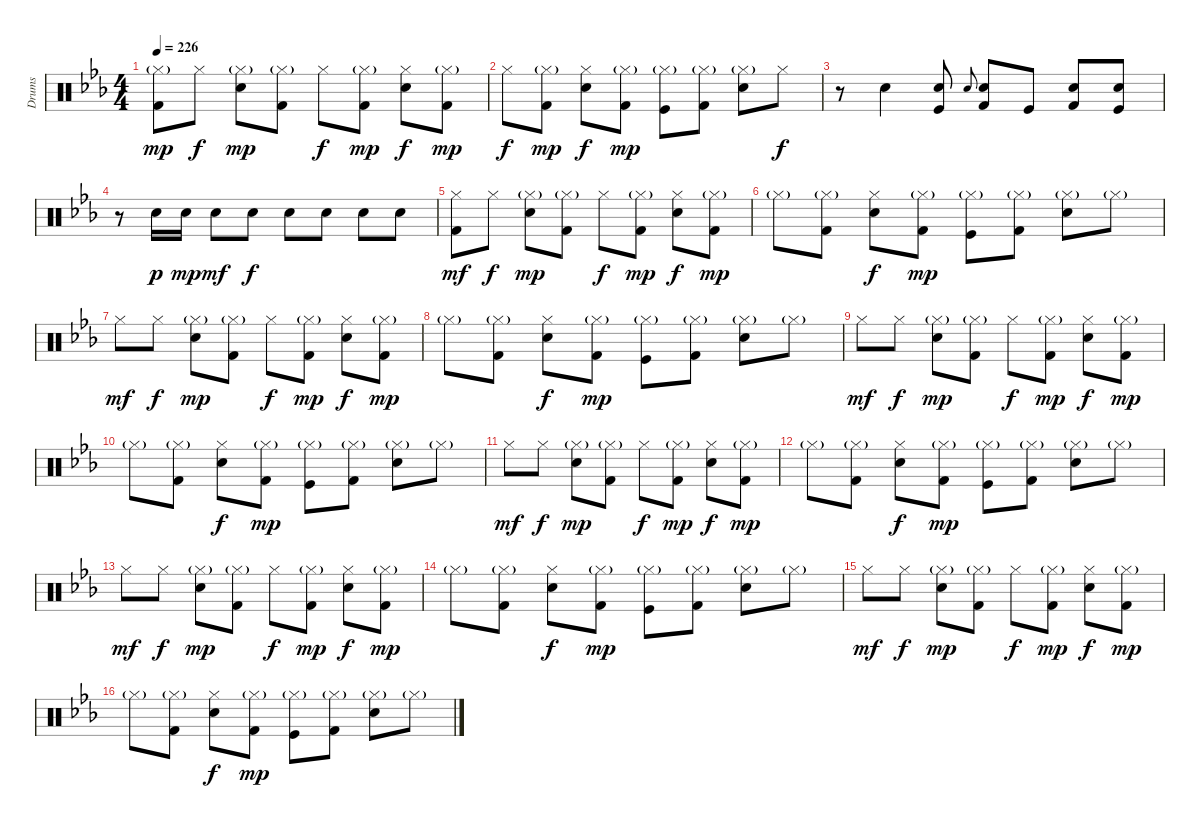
\track ("Drums" "Drums") {instrument percussion}
\staff {score}
\articulation defaults
\ts (4 4)
\tempo 226
\clef neutral
\ks cminor
("Hi-Hat (closed)"{g} "Kick (hit) 2").8{dy mp} "Hi-Hat (closed)".8{dy f} ("Hi-Hat (closed)"{g} "Snare (hit) 2").8{dy mp} ("Hi-Hat (closed)"{g} "Kick (hit) 2").8 "Hi-Hat (closed)".8{dy f} ("Hi-Hat (closed)"{g} "Kick (hit) 2").8{dy mp} ("Hi-Hat (closed)" "Snare (hit) 2").8{dy f} ("Hi-Hat (closed)"{g} "Kick (hit) 2").8{dy mp} |
"Hi-Hat (closed)".8{dy f} ("Hi-Hat (closed)"{g} "Kick (hit) 2").8{dy mp} ("Hi-Hat (closed)" "Snare (hit) 2").8{dy f} ("Hi-Hat (closed)"{g} "Kick (hit) 2").8{dy mp} ("Hi-Hat (closed)"{g} "Kick (hit)").8 ("Hi-Hat (closed)"{g} "Kick (hit) 2").8 ("Hi-Hat (closed)"{g} "Snare (hit) 2").8 "Hi-Hat (closed)".8{dy f} |
r.8 "Snare (hit) 2".4 ("Snare (hit) 2" "Kick (hit)").8 "Snare (hit) 2".8{gr onbeat} ("Snare (hit) 2" "Kick (hit) 2").8 "Kick (hit)".8 ("Snare (hit) 2" "Kick (hit) 2").8 ("Snare (hit) 2" "Kick (hit)").8 |
r.8 "Snare (hit) 2".16{dy p} "Snare (hit) 2".16{dy mp} "Snare (hit) 2".8{dy mf} "Snare (hit) 2".8{dy f} "Snare (hit) 2".8 "Snare (hit) 2".8 "Snare (hit) 2".8 "Snare (hit) 2".8 |
("Hi-Hat (closed)" "Kick (hit) 2").8{dy mf} "Hi-Hat (closed)".8{dy f} ("Hi-Hat (closed)"{g} "Snare (hit) 2").8{dy mp} ("Hi-Hat (closed)"{g} "Kick (hit) 2").8 "Hi-Hat (closed)".8{dy f} ("Hi-Hat (closed)"{g} "Kick (hit) 2").8{dy mp} ("Hi-Hat (closed)" "Snare (hit) 2").8{dy f} ("Hi-Hat (closed)"{g} "Kick (hit) 2").8{dy mp} |
"Hi-Hat (closed)"{g}.8 ("Hi-Hat (closed)"{g} "Kick (hit) 2").8 ("Hi-Hat (closed)" "Snare (hit) 2").8{dy f} ("Hi-Hat (closed)"{g} "Kick (hit) 2").8{dy mp} ("Hi-Hat (closed)"{g} "Kick (hit)").8 ("Hi-Hat (closed)"{g} "Kick (hit) 2").8 ("Hi-Hat (closed)"{g} "Snare (hit) 2").8 "Hi-Hat (closed)"{g}.8 |
"Hi-Hat (closed)".8{dy mf} "Hi-Hat (closed)".8{dy f} ("Hi-Hat (closed)"{g} "Snare (hit) 2").8{dy mp} ("Hi-Hat (closed)"{g} "Kick (hit) 2").8 "Hi-Hat (closed)".8{dy f} ("Hi-Hat (closed)"{g} "Kick (hit) 2").8{dy mp} ("Hi-Hat (closed)" "Snare (hit) 2").8{dy f} ("Hi-Hat (closed)"{g} "Kick (hit) 2").8{dy mp} |
"Hi-Hat (closed)"{g}.8 ("Hi-Hat (closed)"{g} "Kick (hit) 2").8 ("Hi-Hat (closed)" "Snare (hit) 2").8{dy f} ("Hi-Hat (closed)"{g} "Kick (hit) 2").8{dy mp} ("Hi-Hat (closed)"{g} "Kick (hit)").8 ("Hi-Hat (closed)"{g} "Kick (hit) 2").8 ("Hi-Hat (closed)"{g} "Snare (hit) 2").8 "Hi-Hat (closed)"{g}.8 |
"Hi-Hat (closed)".8{dy mf} "Hi-Hat (closed)".8{dy f} ("Hi-Hat (closed)"{g} "Snare (hit) 2").8{dy mp} ("Hi-Hat (closed)"{g} "Kick (hit) 2").8 "Hi-Hat (closed)".8{dy f} ("Hi-Hat (closed)"{g} "Kick (hit) 2").8{dy mp} ("Hi-Hat (closed)" "Snare (hit) 2").8{dy f} ("Hi-Hat (closed)"{g} "Kick (hit) 2").8{dy mp} |
"Hi-Hat (closed)"{g}.8 ("Hi-Hat (closed)"{g} "Kick (hit) 2").8 ("Hi-Hat (closed)" "Snare (hit) 2").8{dy f} ("Hi-Hat (closed)"{g} "Kick (hit) 2").8{dy mp} ("Hi-Hat (closed)"{g} "Kick (hit)").8 ("Hi-Hat (closed)"{g} "Kick (hit) 2").8 ("Hi-Hat (closed)"{g} "Snare (hit) 2").8 "Hi-Hat (closed)"{g}.8 |
"Hi-Hat (closed)".8{dy mf} "Hi-Hat (closed)".8{dy f} ("Hi-Hat (closed)"{g} "Snare (hit) 2").8{dy mp} ("Hi-Hat (closed)"{g} "Kick (hit) 2").8 "Hi-Hat (closed)".8{dy f} ("Hi-Hat (closed)"{g} "Kick (hit) 2").8{dy mp} ("Hi-Hat (closed)" "Snare (hit) 2").8{dy f} ("Hi-Hat (closed)"{g} "Kick (hit) 2").8{dy mp} |
"Hi-Hat (closed)"{g}.8 ("Hi-Hat (closed)"{g} "Kick (hit) 2").8 ("Hi-Hat (closed)" "Snare (hit) 2").8{dy f} ("Hi-Hat (closed)"{g} "Kick (hit) 2").8{dy mp} ("Hi-Hat (closed)"{g} "Kick (hit)").8 ("Hi-Hat (closed)"{g} "Kick (hit) 2").8 ("Hi-Hat (closed)"{g} "Snare (hit) 2").8 "Hi-Hat (closed)"{g}.8 |
"Hi-Hat (closed)".8{dy mf} "Hi-Hat (closed)".8{dy f} ("Hi-Hat (closed)"{g} "Snare (hit) 2").8{dy mp} ("Hi-Hat (closed)"{g} "Kick (hit) 2").8 "Hi-Hat (closed)".8{dy f} ("Hi-Hat (closed)"{g} "Kick (hit) 2").8{dy mp} ("Hi-Hat (closed)" "Snare (hit) 2").8{dy f} ("Hi-Hat (closed)"{g} "Kick (hit) 2").8{dy mp} |
"Hi-Hat (closed)"{g}.8 ("Hi-Hat (closed)"{g} "Kick (hit) 2").8 ("Hi-Hat (closed)" "Snare (hit) 2").8{dy f} ("Hi-Hat (closed)"{g} "Kick (hit) 2").8{dy mp} ("Hi-Hat (closed)"{g} "Kick (hit)").8 ("Hi-Hat (closed)"{g} "Kick (hit) 2").8 ("Hi-Hat (closed)"{g} "Snare (hit) 2").8 "Hi-Hat (closed)"{g}.8 |
"Hi-Hat (closed)".8{dy mf} "Hi-Hat (closed)".8{dy f} ("Hi-Hat (closed)"{g} "Snare (hit) 2").8{dy mp} ("Hi-Hat (closed)"{g} "Kick (hit) 2").8 "Hi-Hat (closed)".8{dy f} ("Hi-Hat (closed)"{g} "Kick (hit) 2").8{dy mp} ("Hi-Hat (closed)" "Snare (hit) 2").8{dy f} ("Hi-Hat (closed)"{g} "Kick (hit) 2").8{dy mp} |
"Hi-Hat (closed)"{g}.8 ("Hi-Hat (closed)"{g} "Kick (hit) 2").8 ("Hi-Hat (closed)" "Snare (hit) 2").8{dy f} ("Hi-Hat (closed)"{g} "Kick (hit) 2").8{dy mp} ("Hi-Hat (closed)"{g} "Kick (hit)").8 ("Hi-Hat (closed)"{g} "Kick (hit) 2").8 ("Hi-Hat (closed)"{g} "Snare (hit) 2").8 "Hi-Hat (closed)"{g}.8
